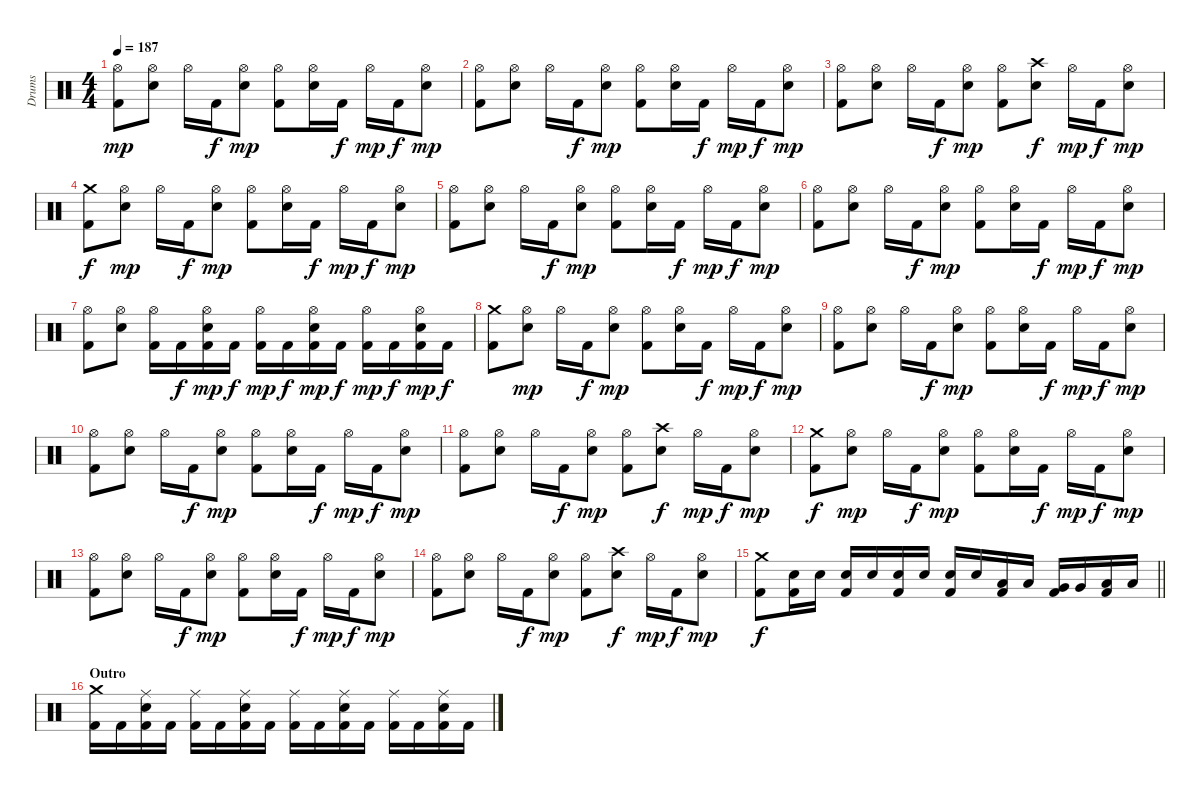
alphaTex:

\track ("Drums" "Drums") {instrument percussion}
\staff {score}
\articulation defaults
\ts (4 4)
\tempo 187
\clef neutral
\ks c
("Hi-Hat (open)" "Kick (hit) 2").8{dy mp} ("Hi-Hat (open)" "Snare (hit) 2").8 "Hi-Hat (open)".16 "Kick (hit) 2".16{dy f} ("Hi-Hat (open)" "Snare (hit) 2").8{dy mp} ("Hi-Hat (open)" "Kick (hit) 2").8 ("Hi-Hat (open)" "Snare (hit) 2").16 "Kick (hit) 2".16{dy f} "Hi-Hat (open)".16{dy mp} "Kick (hit) 2".16{dy f} ("Hi-Hat (open)" "Snare (hit) 2").8{dy mp} |
("Hi-Hat (open)" "Kick (hit) 2").8 ("Hi-Hat (open)" "Snare (hit) 2").8 "Hi-Hat (open)".16 "Kick (hit) 2".16{dy f} ("Hi-Hat (open)" "Snare (hit) 2").8{dy mp} ("Hi-Hat (open)" "Kick (hit) 2").8 ("Hi-Hat (open)" "Snare (hit) 2").16 "Kick (hit) 2".16{dy f} "Hi-Hat (open)".16{dy mp} "Kick (hit) 2".16{dy f} ("Hi-Hat (open)" "Snare (hit) 2").8{dy mp} |
("Hi-Hat (open)" "Kick (hit) 2").8 ("Hi-Hat (open)" "Snare (hit) 2").8 "Hi-Hat (open)".16 "Kick (hit) 2".16{dy f} ("Hi-Hat (open)" "Snare (hit) 2").8{dy mp} ("Hi-Hat (open)" "Kick (hit) 2").8 ("Crash high (hit)" "Snare (hit) 2").8{dy f} "Hi-Hat (open)".16{dy mp} "Kick (hit) 2".16{dy f} ("Hi-Hat (open)" "Snare (hit) 2").8{dy mp} |
("Crash medium (hit)" "Kick (hit) 2").8{dy f} ("Hi-Hat (open)" "Snare (hit) 2").8{dy mp} "Hi-Hat (open)".16 "Kick (hit) 2".16{dy f} ("Hi-Hat (open)" "Snare (hit) 2").8{dy mp} ("Hi-Hat (open)" "Kick (hit) 2").8 ("Hi-Hat (open)" "Snare (hit) 2").16 "Kick (hit) 2".16{dy f} "Hi-Hat (open)".16{dy mp} "Kick (hit) 2".16{dy f} ("Hi-Hat (open)" "Snare (hit) 2").8{dy mp} |
("Hi-Hat (open)" "Kick (hit) 2").8 ("Hi-Hat (open)" "Snare (hit) 2").8 "Hi-Hat (open)".16 "Kick (hit) 2".16{dy f} ("Hi-Hat (open)" "Snare (hit) 2").8{dy mp} ("Hi-Hat (open)" "Kick (hit) 2").8 ("Hi-Hat (open)" "Snare (hit) 2").16 "Kick (hit) 2".16{dy f} "Hi-Hat (open)".16{dy mp} "Kick (hit) 2".16{dy f} ("Hi-Hat (open)" "Snare (hit) 2").8{dy mp} |
("Hi-Hat (open)" "Kick (hit) 2").8 ("Hi-Hat (open)" "Snare (hit) 2").8 "Hi-Hat (open)".16 "Kick (hit) 2".16{dy f} ("Hi-Hat (open)" "Snare (hit) 2").8{dy mp} ("Hi-Hat (open)" "Kick (hit) 2").8 ("Hi-Hat (open)" "Snare (hit) 2").16 "Kick (hit) 2".16{dy f} "Hi-Hat (open)".16{dy mp} "Kick (hit) 2".16{dy f} ("Hi-Hat (open)" "Snare (hit) 2").8{dy mp} |
("Hi-Hat (open)" "Kick (hit) 2").8 ("Hi-Hat (open)" "Snare (hit) 2").8 ("Hi-Hat (open)" "Kick (hit) 2").16 "Kick (hit) 2".16{dy f} ("Hi-Hat (open)" "Snare (hit) 2" "Kick (hit) 2").16{dy mp} "Kick (hit) 2".16{dy f} ("Hi-Hat (open)" "Kick (hit) 2").16{dy mp} "Kick (hit) 2".16{dy f} ("Hi-Hat (open)" "Snare (hit) 2" "Kick (hit) 2").16{dy mp} "Kick (hit) 2".16{dy f} ("Hi-Hat (open)" "Kick (hit) 2").16{dy mp} "Kick (hit) 2".16{dy f} ("Hi-Hat (open)" "Snare (hit) 2" "Kick (hit) 2").16{dy mp} "Kick (hit) 2".16{dy f} |
("Crash medium (hit)" "Kick (hit) 2").8 ("Hi-Hat (open)" "Snare (hit) 2").8{dy mp} "Hi-Hat (open)".16 "Kick (hit) 2".16{dy f} ("Hi-Hat (open)" "Snare (hit) 2").8{dy mp} ("Hi-Hat (open)" "Kick (hit) 2").8 ("Hi-Hat (open)" "Snare (hit) 2").16 "Kick (hit) 2".16{dy f} "Hi-Hat (open)".16{dy mp} "Kick (hit) 2".16{dy f} ("Hi-Hat (open)" "Snare (hit) 2").8{dy mp} |
("Hi-Hat (open)" "Kick (hit) 2").8 ("Hi-Hat (open)" "Snare (hit) 2").8 "Hi-Hat (open)".16 "Kick (hit) 2".16{dy f} ("Hi-Hat (open)" "Snare (hit) 2").8{dy mp} ("Hi-Hat (open)" "Kick (hit) 2").8 ("Hi-Hat (open)" "Snare (hit) 2").16 "Kick (hit) 2".16{dy f} "Hi-Hat (open)".16{dy mp} "Kick (hit) 2".16{dy f} ("Hi-Hat (open)" "Snare (hit) 2").8{dy mp} |
("Hi-Hat (open)" "Kick (hit) 2").8 ("Hi-Hat (open)" "Snare (hit) 2").8 "Hi-Hat (open)".16 "Kick (hit) 2".16{dy f} ("Hi-Hat (open)" "Snare (hit) 2").8{dy mp} ("Hi-Hat (open)" "Kick (hit) 2").8 ("Hi-Hat (open)" "Snare (hit) 2").16 "Kick (hit) 2".16{dy f} "Hi-Hat (open)".16{dy mp} "Kick (hit) 2".16{dy f} ("Hi-Hat (open)" "Snare (hit) 2").8{dy mp} |
("Hi-Hat (open)" "Kick (hit) 2").8 ("Hi-Hat (open)" "Snare (hit) 2").8 "Hi-Hat (open)".16 "Kick (hit) 2".16{dy f} ("Hi-Hat (open)" "Snare (hit) 2").8{dy mp} ("Hi-Hat (open)" "Kick (hit) 2").8 ("Crash high (hit)" "Snare (hit) 2").8{dy f} "Hi-Hat (open)".16{dy mp} "Kick (hit) 2".16{dy f} ("Hi-Hat (open)" "Snare (hit) 2").8{dy mp} |
("Crash medium (hit)" "Kick (hit) 2").8{dy f} ("Hi-Hat (open)" "Snare (hit) 2").8{dy mp} "Hi-Hat (open)".16 "Kick (hit) 2".16{dy f} ("Hi-Hat (open)" "Snare (hit) 2").8{dy mp} ("Hi-Hat (open)" "Kick (hit) 2").8 ("Hi-Hat (open)" "Snare (hit) 2").16 "Kick (hit) 2".16{dy f} "Hi-Hat (open)".16{dy mp} "Kick (hit) 2".16{dy f} ("Hi-Hat (open)" "Snare (hit) 2").8{dy mp} |
("Hi-Hat (open)" "Kick (hit) 2").8 ("Hi-Hat (open)" "Snare (hit) 2").8 "Hi-Hat (open)".16 "Kick (hit) 2".16{dy f} ("Hi-Hat (open)" "Snare (hit) 2").8{dy mp} ("Hi-Hat (open)" "Kick (hit) 2").8 ("Hi-Hat (open)" "Snare (hit) 2").16 "Kick (hit) 2".16{dy f} "Hi-Hat (open)".16{dy mp} "Kick (hit) 2".16{dy f} ("Hi-Hat (open)" "Snare (hit) 2").8{dy mp} |
("Hi-Hat (open)" "Kick (hit) 2").8 ("Hi-Hat (open)" "Snare (hit) 2").8 "Hi-Hat (open)".16 "Kick (hit) 2".16{dy f} ("Hi-Hat (open)" "Snare (hit) 2").8{dy mp} ("Hi-Hat (open)" "Kick (hit) 2").8 ("Crash high (hit)" "Snare (hit) 2").8{dy f} "Hi-Hat (open)".16{dy mp} "Kick (hit) 2".16{dy f} ("Hi-Hat (open)" "Snare (hit) 2").8{dy mp} |
\barLineRight lightlight
("Crash medium (hit)" "Kick (hit) 2").8{dy f} ("Snare (hit) 2" "Kick (hit) 2").16 "Snare (hit) 2".16 ("Snare (hit) 2" "Kick (hit) 2").16 "Snare (hit) 2".16 ("Snare (hit) 2" "Kick (hit) 2").16 "Snare (hit) 2".16 ("Snare (hit) 2" "Kick (hit) 2").16 "Snare (hit) 2".16 ("Low Tom (hit)" "Kick (hit) 2").16 "Low Tom (hit)".16 ("Very Low Tom (hit)" "Kick (hit) 2").16 "Very Low Tom (hit)".16 ("Low Floor Tom (hit)" "Kick (hit) 2").16 "Low Floor Tom (hit)".16 |
\section ("" "Outro")
("Crash medium (hit)" "Kick (hit) 2").16 "Kick (hit) 2".16 ("Ride (middle)" "Snare (hit) 2" "Kick (hit) 2").16 "Kick (hit) 2".16 ("Ride (middle)" "Kick (hit) 2").16 "Kick (hit) 2".16 ("Ride (middle)" "Snare (hit) 2" "Kick (hit) 2").16 "Kick (hit) 2".16 ("Ride (middle)" "Kick (hit) 2").16 "Kick (hit) 2".16 ("Ride (middle)" "Snare (hit) 2" "Kick (hit) 2").16 "Kick (hit) 2".16 ("Ride (middle)" "Kick (hit) 2").16 "Kick (hit) 2".16 ("Ride (middle)" "Snare (hit) 2" "Kick (hit) 2").16 "Kick (hit) 2".16
